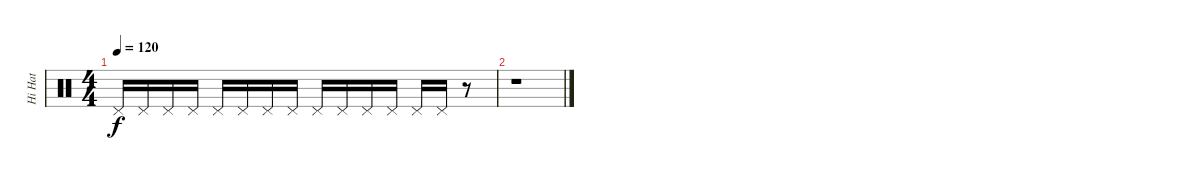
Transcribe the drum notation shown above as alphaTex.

\track ("Hi Hat" "Hi Hat") {instrument percussion}
\staff {score}
\articulation defaults
\ts (4 4)
\tempo 120
\clef neutral
\ks c "Pedal Hi-Hat (hit)".16{dy f} "Pedal Hi-Hat (hit)".16 "Pedal Hi-Hat (hit)".16 "Pedal Hi-Hat (hit)".16 "Pedal Hi-Hat (hit)".16 "Pedal Hi-Hat (hit)".16 "Pedal Hi-Hat (hit)".16 "Pedal Hi-Hat (hit)".16 "Pedal Hi-Hat (hit)".16 "Pedal Hi-Hat (hit)".16 "Pedal Hi-Hat (hit)".16 "Pedal Hi-Hat (hit)".16 "Pedal Hi-Hat (hit)".16 "Pedal Hi-Hat (hit)".16
r.8 |
r.1
